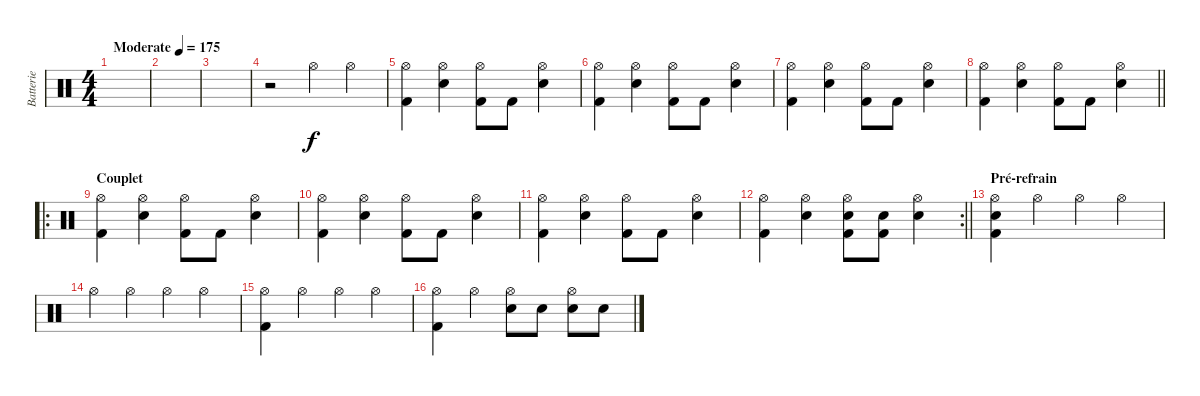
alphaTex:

\track ("Batterie" "Batterie") {instrument percussion}
\staff {score}
\articulation defaults
\ts (4 4)
\tempo (175 "Moderate")
\clef neutral
\ks c
|
|
|
r.2 "Hi-Hat (open)".4 "Hi-Hat (open)".4 |
("Hi-Hat (open)" "Kick (hit) 2").4 ("Hi-Hat (open)" "Electric Snare (hit)").4 ("Hi-Hat (open)" "Kick (hit) 2").8 "Kick (hit) 2".8 ("Hi-Hat (open)" "Electric Snare (hit)").4 |
("Hi-Hat (open)" "Kick (hit) 2").4 ("Hi-Hat (open)" "Electric Snare (hit)").4 ("Hi-Hat (open)" "Kick (hit) 2").8 "Kick (hit) 2".8 ("Hi-Hat (open)" "Electric Snare (hit)").4 |
("Hi-Hat (open)" "Kick (hit) 2").4 ("Hi-Hat (open)" "Electric Snare (hit)").4 ("Hi-Hat (open)" "Kick (hit) 2").8 "Kick (hit) 2".8 ("Hi-Hat (open)" "Electric Snare (hit)").4 |
\barLineRight lightlight
("Hi-Hat (open)" "Kick (hit) 2").4 ("Hi-Hat (open)" "Electric Snare (hit)").4 ("Hi-Hat (open)" "Kick (hit) 2").8 "Kick (hit) 2".8 ("Hi-Hat (open)" "Electric Snare (hit)").4 |
\ro
\section ("" "Couplet")
("Hi-Hat (open)" "Kick (hit) 2").4 ("Hi-Hat (open)" "Electric Snare (hit)").4 ("Hi-Hat (open)" "Kick (hit) 2").8 "Kick (hit) 2".8 ("Hi-Hat (open)" "Electric Snare (hit)").4 |
("Hi-Hat (open)" "Kick (hit) 2").4 ("Hi-Hat (open)" "Electric Snare (hit)").4 ("Hi-Hat (open)" "Kick (hit) 2").8 "Kick (hit) 2".8 ("Hi-Hat (open)" "Electric Snare (hit)").4 |
("Hi-Hat (open)" "Kick (hit) 2").4 ("Hi-Hat (open)" "Electric Snare (hit)").4 ("Hi-Hat (open)" "Kick (hit) 2").8 "Kick (hit) 2".8 ("Hi-Hat (open)" "Electric Snare (hit)").4 |
\rc 2
\barLineRight lightlight
("Hi-Hat (open)" "Kick (hit) 2").4 ("Hi-Hat (open)" "Electric Snare (hit)").4 ("Hi-Hat (open)" "Electric Snare (hit)" "Kick (hit) 2").8 ("Electric Snare (hit)" "Kick (hit) 2").8 ("Hi-Hat (open)" "Electric Snare (hit)").4 |
\section ("" "Pré-refrain")
("Hi-Hat (open)" "Electric Snare (hit)" "Kick (hit) 2").4 "Hi-Hat (open)".4 "Hi-Hat (open)".4 "Hi-Hat (open)".4 |
"Hi-Hat (open)".4 "Hi-Hat (open)".4 "Hi-Hat (open)".4 "Hi-Hat (open)".4 |
("Hi-Hat (open)" "Kick (hit) 2").4 "Hi-Hat (open)".4 "Hi-Hat (open)".4 "Hi-Hat (open)".4 |
("Hi-Hat (open)" "Kick (hit) 2").4 "Hi-Hat (open)".4 ("Hi-Hat (open)" "Electric Snare (hit)").8 "Electric Snare (hit)".8 ("Hi-Hat (open)" "Electric Snare (hit)").8 "Electric Snare (hit)".8
